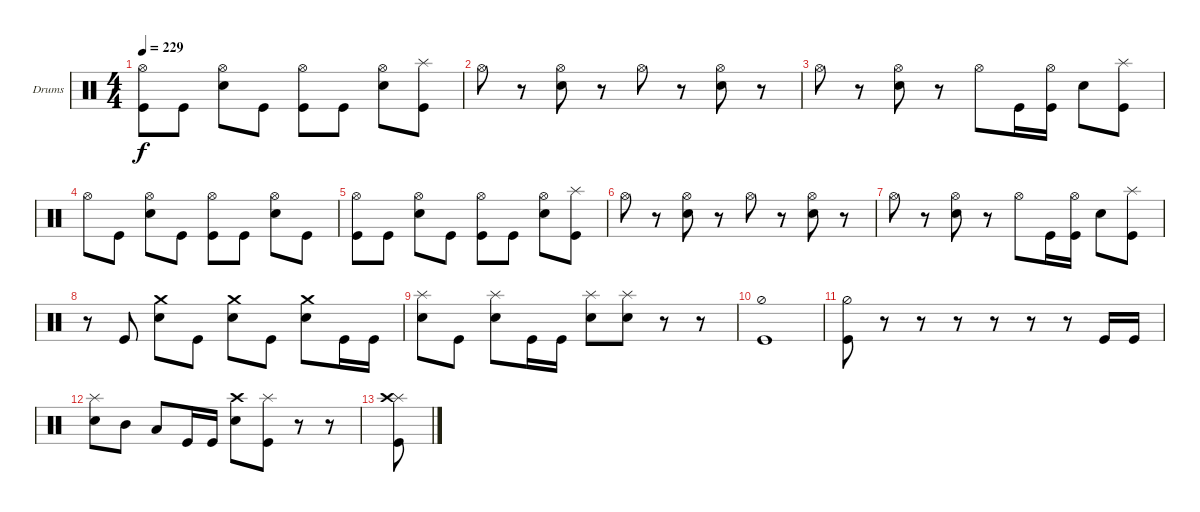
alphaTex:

\defaultSystemsLayout 4
\bracketExtendMode groupsimilarinstruments
\firstSystemTrackNameOrientation horizontal
\otherSystemsTrackNameOrientation horizontal
\track ("Drumkit" "Drums") {instrument percussion}
\staff {score}
\articulation defaults
\ts (4 4)
\tempo 229
\clef neutral
\ks c
("Kick (hit)" "Hi-Hat (open)").8{dy f} "Kick (hit)".8 ("Snare (hit) 2" "Hi-Hat (open)").8 "Kick (hit)".8 ("Kick (hit)" "Hi-Hat (open)").8 "Kick (hit)".8 ("Snare (hit) 2" "Hi-Hat (open)").8 ("Kick (hit)" "Splash (hit)").8 |
"Hi-Hat (open)".8 r.8 ("Snare (hit) 2" "Hi-Hat (open)").8 r.8 "Hi-Hat (open)".8 r.8 ("Snare (hit) 2" "Hi-Hat (open)").8 r.8 |
"Hi-Hat (open)".8 r.8 ("Snare (hit) 2" "Hi-Hat (open)").8 r.8 "Hi-Hat (open)".8 "Kick (hit)".16 ("Hi-Hat (open)" "Kick (hit)").16 "Snare (hit) 2".8 ("Kick (hit)" "Splash (hit)").8 |
"Hi-Hat (open)".8 "Kick (hit)".8 ("Snare (hit) 2" "Hi-Hat (open)").8 "Kick (hit)".8 ("Kick (hit)" "Hi-Hat (open)").8 "Kick (hit)".8 ("Snare (hit) 2" "Hi-Hat (open)").8 "Kick (hit)".8 |
("Kick (hit)" "Hi-Hat (open)").8 "Kick (hit)".8 ("Snare (hit) 2" "Hi-Hat (open)").8 "Kick (hit)".8 ("Kick (hit)" "Hi-Hat (open)").8 "Kick (hit)".8 ("Snare (hit) 2" "Hi-Hat (open)").8 ("Kick (hit)" "Splash (hit)").8 |
"Hi-Hat (open)".8 r.8 ("Snare (hit) 2" "Hi-Hat (open)").8 r.8 "Hi-Hat (open)".8 r.8 ("Snare (hit) 2" "Hi-Hat (open)").8 r.8 |
"Hi-Hat (open)".8 r.8 ("Snare (hit) 2" "Hi-Hat (open)").8 r.8 "Hi-Hat (open)".8 "Kick (hit)".16 ("Hi-Hat (open)" "Kick (hit)").16 "Snare (hit) 2".8 ("Kick (hit)" "Splash (hit)").8 |
r.8 "Kick (hit)".8 ("Snare (hit) 2" "Crash medium (hit)").8 "Kick (hit)".8 ("Snare (hit) 2" "Crash medium (hit)").8 "Kick (hit)".8 ("Snare (hit) 2" "Crash medium (hit)").8 "Kick (hit)".16 "Kick (hit)".16 |
("Snare (hit) 2" "Splash (hit)").8 "Kick (hit)".8 ("Snare (hit) 2" "Splash (hit)").8 "Kick (hit)".16 "Kick (hit)".16 ("Snare (hit) 2" "Splash (hit)").8 ("Snare (hit) 2" "Splash (hit)").8 r.8 r.8 |
("Kick (hit)" "Hi-Hat (half)").1 |
("Kick (hit)" "Hi-Hat (half)").8 r.8 r.8 r.8 r.8 r.8 r.8 "Kick (hit)".16 "Kick (hit)".16 |
("Snare (hit) 2" "Splash (hit)").8 "Mid Tom (hit)".8 "Low Tom (hit)".8 "Kick (hit)".16 "Kick (hit)".16 ("Snare (hit) 2" "Crash high (hit)").8 ("Kick (hit)" "Splash (hit)").8 r.8 r.8 |
("Kick (hit)" "Splash (hit)" "Crash high (hit)").8
